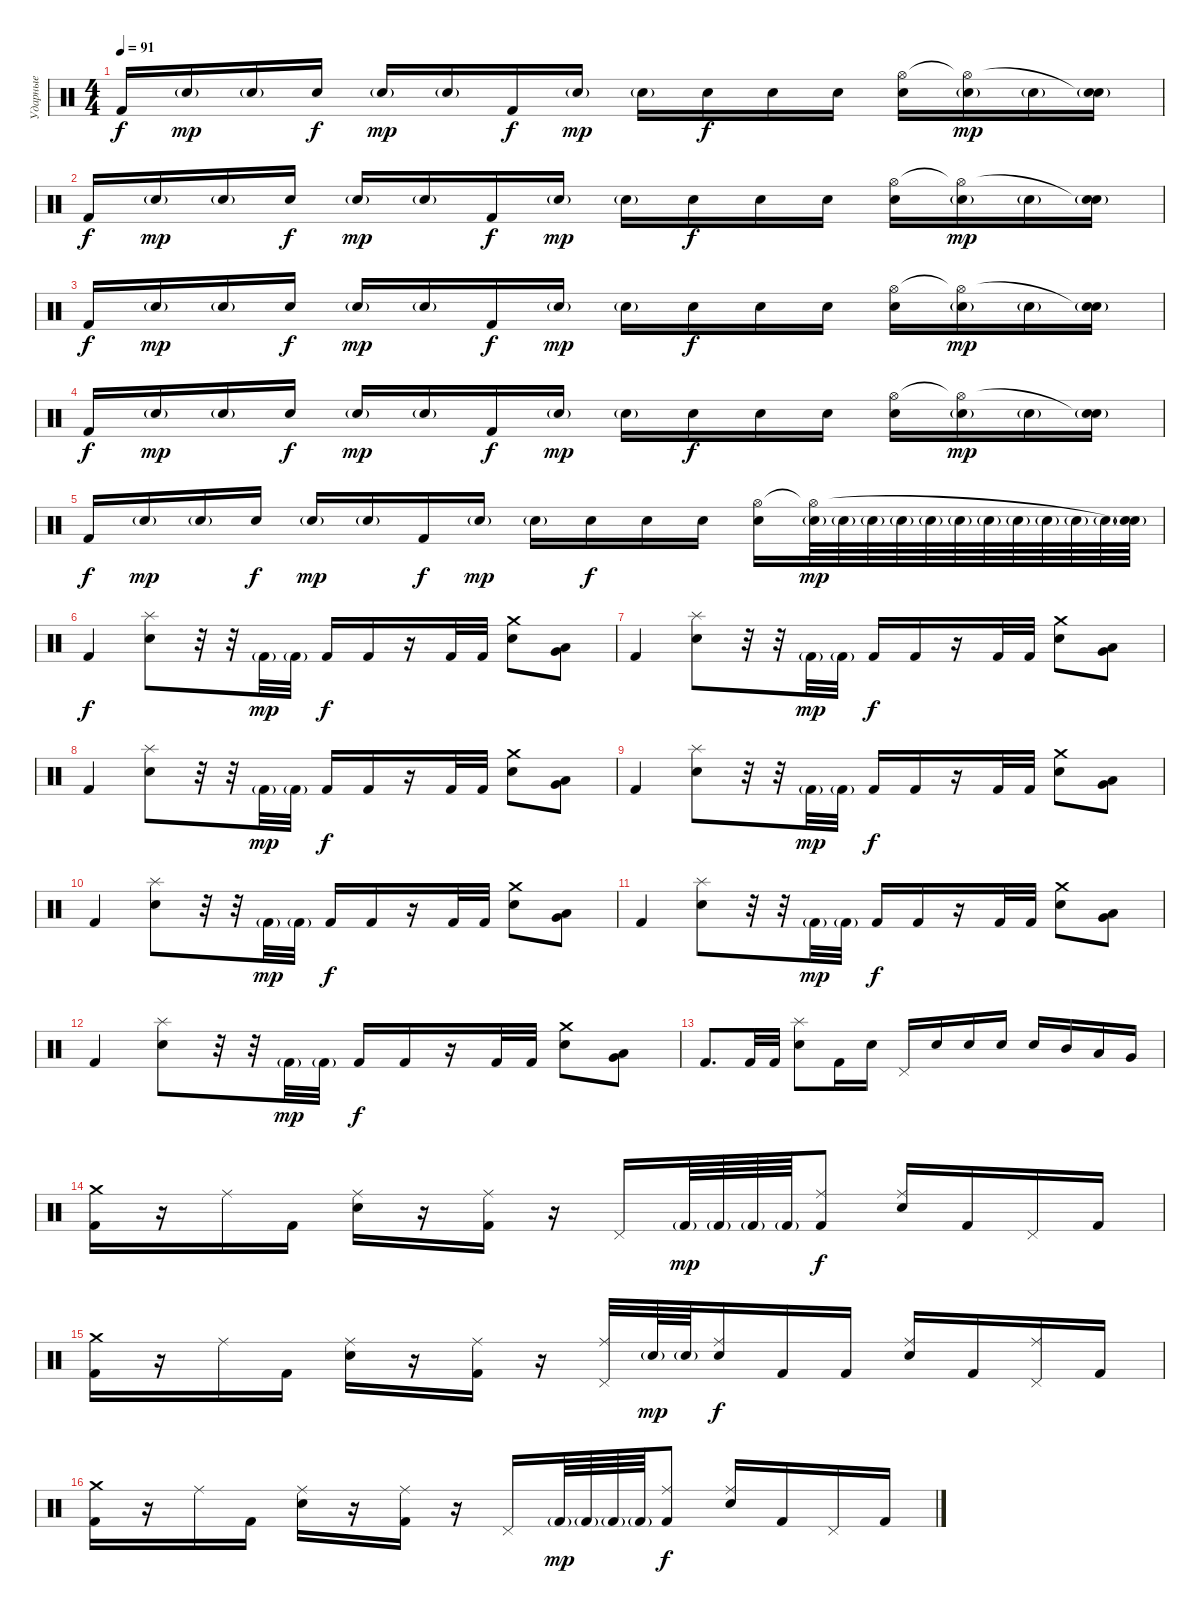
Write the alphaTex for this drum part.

\track ("Ударные" "Ударные") {instrument percussion}
\staff {score}
\articulation defaults
\ts (4 4)
\tempo 91
\clef neutral
\ks c "Kick (hit) 2".16{dy f} "Snare (hit) 2"{g}.16{dy mp} "Snare (hit) 2"{g}.16 "Snare (hit) 2".16{dy f} "Snare (hit) 2"{g}.16{dy mp} "Snare (hit) 2"{g}.16 "Kick (hit) 2".16{dy f} "Snare (hit) 2"{g}.16{dy mp} "Snare (hit) 2"{g}.16 "Snare (hit) 2".16{dy f} "Snare (hit) 2".16 "Snare (hit) 2".16
("Snare (hit) 2" "Hi-Hat (open)").16 ("Snare (hit) 2"{g} "Hi-Hat (open)"{t}).16{dy mp} "Snare (hit) 2"{g}.16 ("Snare (hit) 2"{g} "Snare (hit)"{t}).16 |
"Kick (hit) 2".16{dy f} "Snare (hit) 2"{g}.16{dy mp} "Snare (hit) 2"{g}.16 "Snare (hit) 2".16{dy f} "Snare (hit) 2"{g}.16{dy mp} "Snare (hit) 2"{g}.16 "Kick (hit) 2".16{dy f} "Snare (hit) 2"{g}.16{dy mp} "Snare (hit) 2"{g}.16 "Snare (hit) 2".16{dy f} "Snare (hit) 2".16 "Snare (hit) 2".16 ("Snare (hit) 2" "Hi-Hat (open)").16 ("Snare (hit) 2"{g} "Hi-Hat (open)"{t}).16{dy mp} "Snare (hit) 2"{g}.16 ("Snare (hit) 2"{g} "Snare (hit)"{t}).16 |
"Kick (hit) 2".16{dy f} "Snare (hit) 2"{g}.16{dy mp} "Snare (hit) 2"{g}.16 "Snare (hit) 2".16{dy f} "Snare (hit) 2"{g}.16{dy mp} "Snare (hit) 2"{g}.16 "Kick (hit) 2".16{dy f} "Snare (hit) 2"{g}.16{dy mp} "Snare (hit) 2"{g}.16 "Snare (hit) 2".16{dy f} "Snare (hit) 2".16 "Snare (hit) 2".16 ("Snare (hit) 2" "Hi-Hat (open)").16 ("Snare (hit) 2"{g} "Hi-Hat (open)"{t}).16{dy mp} "Snare (hit) 2"{g}.16 ("Snare (hit) 2"{g} "Snare (hit)"{t}).16 |
"Kick (hit) 2".16{dy f} "Snare (hit) 2"{g}.16{dy mp} "Snare (hit) 2"{g}.16 "Snare (hit) 2".16{dy f} "Snare (hit) 2"{g}.16{dy mp} "Snare (hit) 2"{g}.16 "Kick (hit) 2".16{dy f} "Snare (hit) 2"{g}.16{dy mp} "Snare (hit) 2"{g}.16 "Snare (hit) 2".16{dy f} "Snare (hit) 2".16 "Snare (hit) 2".16 ("Snare (hit) 2" "Hi-Hat (open)").16 ("Snare (hit) 2"{g} "Hi-Hat (open)"{t}).16{dy mp} "Snare (hit) 2"{g}.16 ("Snare (hit) 2"{g} "Snare (hit)"{t}).16 |
"Kick (hit) 2".16{dy f} "Snare (hit) 2"{g}.16{dy mp} "Snare (hit) 2"{g}.16 "Snare (hit) 2".16{dy f} "Snare (hit) 2"{g}.16{dy mp} "Snare (hit) 2"{g}.16 "Kick (hit) 2".16{dy f} "Snare (hit) 2"{g}.16{dy mp} "Snare (hit) 2"{g}.16 "Snare (hit) 2".16{dy f} "Snare (hit) 2".16 "Snare (hit) 2".16 ("Snare (hit) 2" "Hi-Hat (open)").16 ("Snare (hit) 2"{g} "Hi-Hat (open)"{t}).64{dy mp} "Snare (hit) 2"{g}.64 "Snare (hit) 2"{g}.64 "Snare (hit) 2"{g}.64 "Snare (hit) 2"{g}.64 "Snare (hit) 2"{g}.64 "Snare (hit) 2"{g}.64 "Snare (hit) 2"{g}.64 "Snare (hit) 2"{g}.64 "Snare (hit) 2"{g}.64 "Snare (hit) 2"{g}.64 ("Snare (hit) 2"{g} "Snare (hit)"{t}).64 |
"Kick (hit) 2".4{dy f} ("Splash (hit)" "Snare (hit) 2").8 r.32 r.32 "Kick (hit) 2"{g}.32{dy mp} "Kick (hit) 2"{g}.32 "Kick (hit) 2".16{dy f} "Kick (hit) 2".16 r.16 "Kick (hit) 2".32 "Kick (hit) 2".32 ("Crash medium (hit)" "Snare (hit) 2").8 ("Low Tom (hit)" "Very Low Tom (hit)").8{bd 30} |
"Kick (hit) 2".4 ("Splash (hit)" "Snare (hit) 2").8 r.32 r.32 "Kick (hit) 2"{g}.32{dy mp} "Kick (hit) 2"{g}.32 "Kick (hit) 2".16{dy f} "Kick (hit) 2".16 r.16 "Kick (hit) 2".32 "Kick (hit) 2".32 ("Crash medium (hit)" "Snare (hit) 2").8 ("Low Tom (hit)" "Very Low Tom (hit)").8{bd 30} |
"Kick (hit) 2".4 ("Splash (hit)" "Snare (hit) 2").8 r.32 r.32 "Kick (hit) 2"{g}.32{dy mp} "Kick (hit) 2"{g}.32 "Kick (hit) 2".16{dy f} "Kick (hit) 2".16 r.16 "Kick (hit) 2".32 "Kick (hit) 2".32 ("Crash medium (hit)" "Snare (hit) 2").8 ("Low Tom (hit)" "Very Low Tom (hit)").8{bd 30} |
"Kick (hit) 2".4 ("Splash (hit)" "Snare (hit) 2").8 r.32 r.32 "Kick (hit) 2"{g}.32{dy mp} "Kick (hit) 2"{g}.32 "Kick (hit) 2".16{dy f} "Kick (hit) 2".16 r.16 "Kick (hit) 2".32 "Kick (hit) 2".32 ("Crash medium (hit)" "Snare (hit) 2").8 ("Low Tom (hit)" "Very Low Tom (hit)").8{bd 30} |
"Kick (hit) 2".4 ("Splash (hit)" "Snare (hit) 2").8 r.32 r.32 "Kick (hit) 2"{g}.32{dy mp} "Kick (hit) 2"{g}.32 "Kick (hit) 2".16{dy f} "Kick (hit) 2".16 r.16 "Kick (hit) 2".32 "Kick (hit) 2".32 ("Crash medium (hit)" "Snare (hit) 2").8 ("Low Tom (hit)" "Very Low Tom (hit)").8{bd 30} |
"Kick (hit) 2".4 ("Splash (hit)" "Snare (hit) 2").8 r.32 r.32 "Kick (hit) 2"{g}.32{dy mp} "Kick (hit) 2"{g}.32 "Kick (hit) 2".16{dy f} "Kick (hit) 2".16 r.16 "Kick (hit) 2".32 "Kick (hit) 2".32 ("Crash medium (hit)" "Snare (hit) 2").8 ("Low Tom (hit)" "Very Low Tom (hit)").8{bd 30} |
"Kick (hit) 2".4 ("Splash (hit)" "Snare (hit) 2").8 r.32 r.32 "Kick (hit) 2"{g}.32{dy mp} "Kick (hit) 2"{g}.32 "Kick (hit) 2".16{dy f} "Kick (hit) 2".16 r.16 "Kick (hit) 2".32 "Kick (hit) 2".32 ("Crash medium (hit)" "Snare (hit) 2").8 ("Low Tom (hit)" "Very Low Tom (hit)").8{bd 30} |
"Kick (hit) 2".8{d} "Kick (hit) 2".32 "Kick (hit) 2".32 ("Splash (hit)" "Snare (hit) 2").8 "Kick (hit) 2".16 "Snare (hit) 2".16 "Pedal Hi-Hat (hit)".16 "Snare (hit) 2".16 "Snare (hit) 2".16 "Snare (hit) 2".16 "Snare (hit) 2".16 "Mid Tom (hit)".16 "Low Tom (hit)".16 "Very Low Tom (hit)".16 |
("Crash medium (hit)" "Kick (hit) 2").16 r.16 "Ride (middle)".16 "Kick (hit) 2".16 ("Ride (middle)" "Snare (hit) 2").16 r.16 ("Ride (middle)" "Kick (hit) 2").16 r.16 "Pedal Hi-Hat (hit)".16 "Kick (hit) 2"{g}.64{dy mp} "Kick (hit) 2"{g}.64 "Kick (hit) 2"{g}.64 "Kick (hit) 2"{g}.64 ("Ride (middle)" "Kick (hit) 2").8{dy f} ("Ride (middle)" "Snare (hit) 2").16 "Kick (hit) 2".16 "Pedal Hi-Hat (hit)".16 "Kick (hit) 2".16 |
("Crash medium (hit)" "Kick (hit) 2").16 r.16 "Ride (middle)".16 "Kick (hit) 2".16 ("Ride (middle)" "Snare (hit) 2").16 r.16 ("Ride (middle)" "Kick (hit) 2").16 r.16 ("Ride (middle)" "Pedal Hi-Hat (hit)").32 "Snare (hit) 2"{g}.64{dy mp} "Snare (hit) 2"{g}.64 ("Ride (middle)" "Snare (hit) 2").16{dy f} "Kick (hit) 2".16 "Kick (hit) 2".16 ("Ride (middle)" "Snare (hit) 2").16 "Kick (hit) 2".16 ("Ride (middle)" "Pedal Hi-Hat (hit)").16 "Kick (hit) 2".16 |
("Crash medium (hit)" "Kick (hit) 2").16 r.16 "Ride (middle)".16 "Kick (hit) 2".16 ("Ride (middle)" "Snare (hit) 2").16 r.16 ("Ride (middle)" "Kick (hit) 2").16 r.16 "Pedal Hi-Hat (hit)".16 "Kick (hit) 2"{g}.64{dy mp} "Kick (hit) 2"{g}.64 "Kick (hit) 2"{g}.64 "Kick (hit) 2"{g}.64 ("Ride (middle)" "Kick (hit) 2").8{dy f} ("Ride (middle)" "Snare (hit) 2").16 "Kick (hit) 2".16 "Pedal Hi-Hat (hit)".16 "Kick (hit) 2".16
